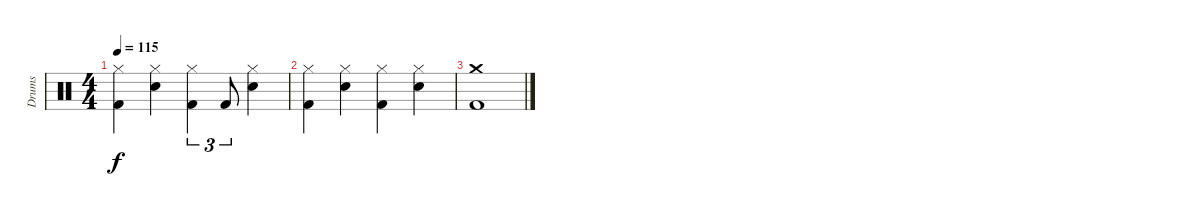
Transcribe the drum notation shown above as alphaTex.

\track ("Drums" "Drums") {instrument percussion}
\staff {score}
\articulation defaults
\ts (4 4)
\tempo 115
\clef neutral
\ks c
("Hi-Hat (closed)" "Kick (hit) 2").4{dy f} ("Hi-Hat (closed)" "Electric Snare (hit)").4 ("Hi-Hat (closed)" "Kick (hit) 2").4{tu (3 2)} "Kick (hit) 2".8{tu (3 2)} ("Hi-Hat (closed)" "Electric Snare (hit)").4 |
("Hi-Hat (closed)" "Kick (hit) 2").4 ("Hi-Hat (closed)" "Electric Snare (hit)").4 ("Hi-Hat (closed)" "Kick (hit) 2").4 ("Hi-Hat (closed)" "Electric Snare (hit)").4 |
("Crash medium (hit)" "Kick (hit) 2").1
